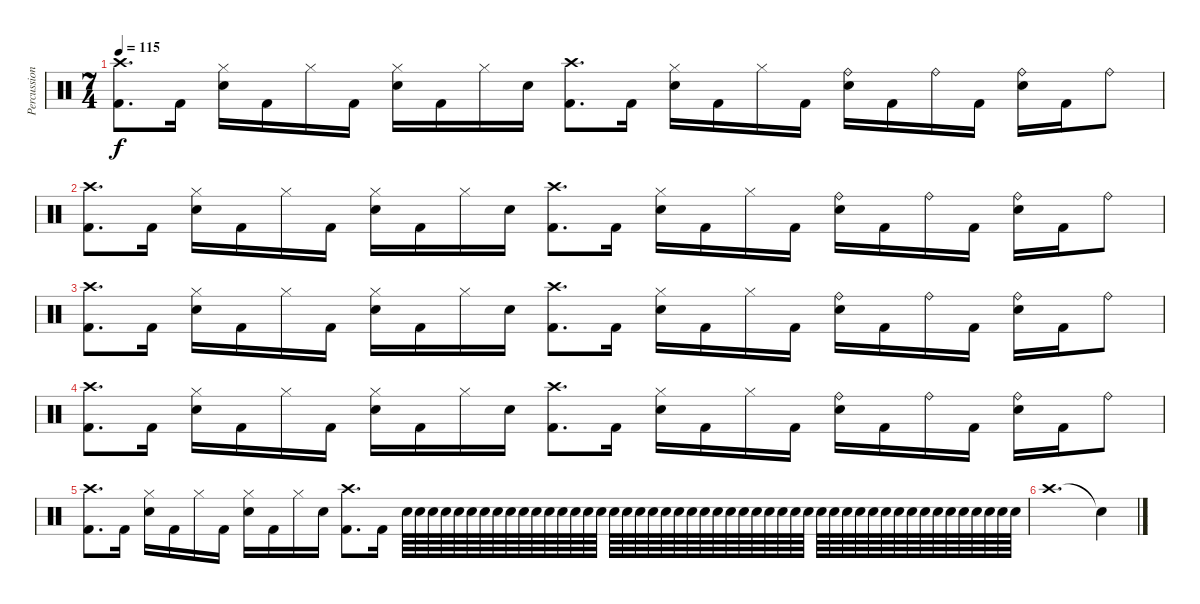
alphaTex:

\track ("Percussioni" "Percussion") {instrument percussion}
\staff {score}
\articulation defaults
\ts (7 4)
\tempo 115
\clef neutral
\ks c
("Crash high (hit)" "Kick (hit) 2").8{d dy f} "Kick (hit) 2".16 ("Hi-Hat (closed)" "Snare (hit) 2").16 "Kick (hit) 2".16 "Hi-Hat (closed)".16 "Kick (hit) 2".16 ("Hi-Hat (closed)" "Snare (hit) 2").16 "Kick (hit) 2".16 "Hi-Hat (closed)".16 "Snare (hit) 2".16 ("Crash high (hit)" "Kick (hit) 2").8{d} "Kick (hit) 2".16 ("Hi-Hat (closed)" "Snare (hit) 2").16 "Kick (hit) 2".16 "Hi-Hat (closed)".16 "Kick (hit) 2".16 ("Ride (bell)" "Snare (hit) 2").16 "Kick (hit) 2".16 "Ride (bell)".16 "Kick (hit) 2".16 ("Ride (bell)" "Snare (hit) 2").16 "Kick (hit) 2".16 "Ride (bell)".8 |
("Crash high (hit)" "Kick (hit) 2").8{d} "Kick (hit) 2".16 ("Hi-Hat (closed)" "Snare (hit) 2").16 "Kick (hit) 2".16 "Hi-Hat (closed)".16 "Kick (hit) 2".16 ("Hi-Hat (closed)" "Snare (hit) 2").16 "Kick (hit) 2".16 "Hi-Hat (closed)".16 "Snare (hit) 2".16 ("Crash high (hit)" "Kick (hit) 2").8{d} "Kick (hit) 2".16 ("Hi-Hat (closed)" "Snare (hit) 2").16 "Kick (hit) 2".16 "Hi-Hat (closed)".16 "Kick (hit) 2".16 ("Ride (bell)" "Snare (hit) 2").16 "Kick (hit) 2".16 "Ride (bell)".16 "Kick (hit) 2".16 ("Ride (bell)" "Snare (hit) 2").16 "Kick (hit) 2".16 "Ride (bell)".8 |
("Crash high (hit)" "Kick (hit) 2").8{d} "Kick (hit) 2".16 ("Hi-Hat (closed)" "Snare (hit) 2").16 "Kick (hit) 2".16 "Hi-Hat (closed)".16 "Kick (hit) 2".16 ("Hi-Hat (closed)" "Snare (hit) 2").16 "Kick (hit) 2".16 "Hi-Hat (closed)".16 "Snare (hit) 2".16 ("Crash high (hit)" "Kick (hit) 2").8{d} "Kick (hit) 2".16 ("Hi-Hat (closed)" "Snare (hit) 2").16 "Kick (hit) 2".16 "Hi-Hat (closed)".16 "Kick (hit) 2".16 ("Ride (bell)" "Snare (hit) 2").16 "Kick (hit) 2".16 "Ride (bell)".16 "Kick (hit) 2".16 ("Ride (bell)" "Snare (hit) 2").16 "Kick (hit) 2".16 "Ride (bell)".8 |
("Crash high (hit)" "Kick (hit) 2").8{d} "Kick (hit) 2".16 ("Hi-Hat (closed)" "Snare (hit) 2").16 "Kick (hit) 2".16 "Hi-Hat (closed)".16 "Kick (hit) 2".16 ("Hi-Hat (closed)" "Snare (hit) 2").16 "Kick (hit) 2".16 "Hi-Hat (closed)".16 "Snare (hit) 2".16 ("Crash high (hit)" "Kick (hit) 2").8{d} "Kick (hit) 2".16 ("Hi-Hat (closed)" "Snare (hit) 2").16 "Kick (hit) 2".16 "Hi-Hat (closed)".16 "Kick (hit) 2".16 ("Ride (bell)" "Snare (hit) 2").16 "Kick (hit) 2".16 "Ride (bell)".16 "Kick (hit) 2".16 ("Ride (bell)" "Snare (hit) 2").16 "Kick (hit) 2".16 "Ride (bell)".8 |
("Crash high (hit)" "Kick (hit) 2").8{d} "Kick (hit) 2".16 ("Hi-Hat (closed)" "Snare (hit) 2").16 "Kick (hit) 2".16 "Hi-Hat (closed)".16 "Kick (hit) 2".16 ("Hi-Hat (closed)" "Snare (hit) 2").16 "Kick (hit) 2".16 "Hi-Hat (closed)".16 "Snare (hit) 2".16 ("Crash high (hit)" "Kick (hit) 2").8{d} "Kick (hit) 2".16 "Snare (hit) 2".64 "Snare (hit) 2".64 "Snare (hit) 2".64 "Snare (hit) 2".64 "Snare (hit) 2".64 "Snare (hit) 2".64 "Snare (hit) 2".64 "Snare (hit) 2".64 "Snare (hit) 2".64 "Snare (hit) 2".64 "Snare (hit) 2".64 "Snare (hit) 2".64 "Snare (hit) 2".64 "Snare (hit) 2".64 "Snare (hit) 2".64 "Snare (hit) 2".64 "Snare (hit) 2".64 "Snare (hit) 2".64 "Snare (hit) 2".64 "Snare (hit) 2".64 "Snare (hit) 2".64 "Snare (hit) 2".64 "Snare (hit) 2".64 "Snare (hit) 2".64 "Snare (hit) 2".64 "Snare (hit) 2".64 "Snare (hit) 2".64 "Snare (hit) 2".64 "Snare (hit) 2".64 "Snare (hit) 2".64 "Snare (hit) 2".64 "Snare (hit) 2".64 "Snare (hit) 2".64 "Snare (hit) 2".64 "Snare (hit) 2".64 "Snare (hit) 2".64 "Snare (hit) 2".64 "Snare (hit) 2".64 "Snare (hit) 2".64 "Snare (hit) 2".64 "Snare (hit) 2".64 "Snare (hit) 2".64 "Snare (hit) 2".64 "Snare (hit) 2".64 "Snare (hit) 2".64 "Snare (hit) 2".64 "Snare (hit) 2".64 "Snare (hit) 2".64 |
"Crash high (hit)".1{d} "Snare (hit)"{t}.4
